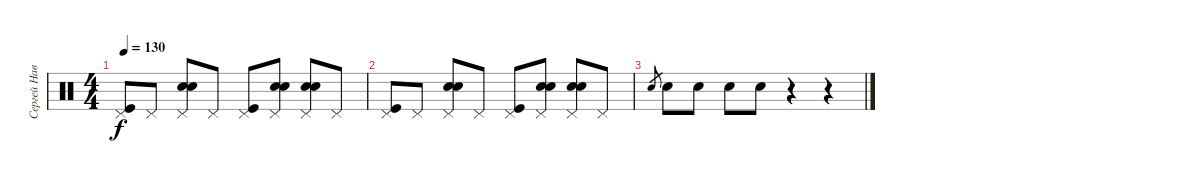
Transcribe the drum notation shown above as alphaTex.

\track ("Сергей Наветный (ударные)" "Сергей Нав") {instrument percussion}
\staff {score}
\articulation defaults
\ts (4 4)
\tempo 130
\clef neutral
\ks c
("Kick (hit)" "Pedal Hi-Hat (hit)").8{dy f} "Pedal Hi-Hat (hit)".8 ("Hand Clap (hit)" "Snare (hit) 2" "Pedal Hi-Hat (hit)").8 "Pedal Hi-Hat (hit)".8 ("Kick (hit)" "Pedal Hi-Hat (hit)").8 ("Hand Clap (hit)" "Snare (hit) 2" "Pedal Hi-Hat (hit)").8 ("Hand Clap (hit)" "Snare (hit) 2" "Pedal Hi-Hat (hit)").8 "Pedal Hi-Hat (hit)".8 |
("Kick (hit)" "Pedal Hi-Hat (hit)").8 "Pedal Hi-Hat (hit)".8 ("Hand Clap (hit)" "Snare (hit) 2" "Pedal Hi-Hat (hit)").8 "Pedal Hi-Hat (hit)".8 ("Kick (hit)" "Pedal Hi-Hat (hit)").8 ("Hand Clap (hit)" "Snare (hit) 2" "Pedal Hi-Hat (hit)").8 ("Hand Clap (hit)" "Snare (hit) 2" "Pedal Hi-Hat (hit)").8 "Pedal Hi-Hat (hit)".8 |
"Snare (hit) 2".8{gr} "Snare (hit) 2".8 "Snare (hit) 2".8 "Snare (hit) 2".8 "Snare (hit) 2".8 r.4 r.4
